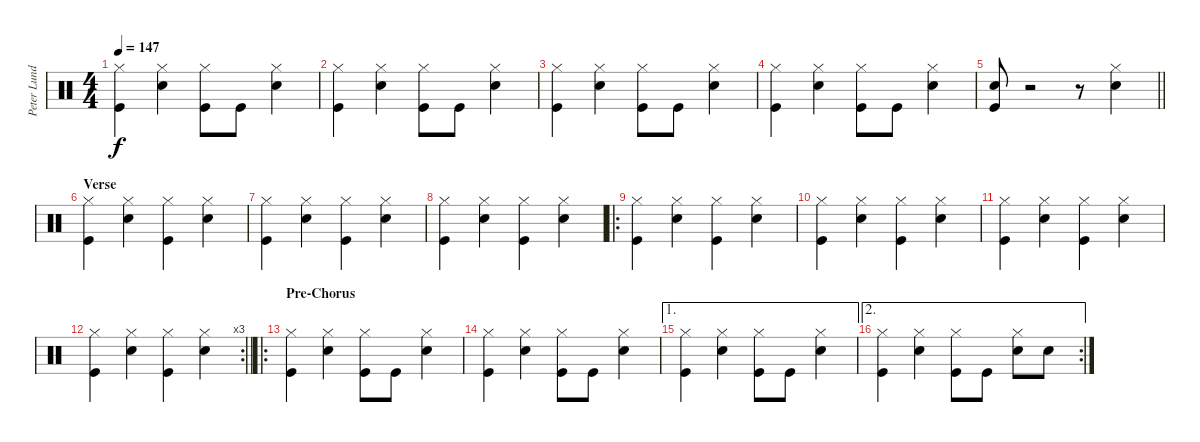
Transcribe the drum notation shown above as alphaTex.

\track ("Peter Lundholm Jensen" "Peter Lund") {instrument percussion}
\staff {score}
\articulation defaults
\ts (4 4)
\tempo 147
\clef neutral
\ks c
("Kick (hit)" "Hi-Hat (closed)").4{dy f} ("Snare (hit) 2" "Hi-Hat (closed)").4 ("Kick (hit)" "Hi-Hat (closed)").8 "Kick (hit)".8 ("Snare (hit) 2" "Hi-Hat (closed)").4 |
("Kick (hit)" "Hi-Hat (closed)").4 ("Snare (hit) 2" "Hi-Hat (closed)").4 ("Kick (hit)" "Hi-Hat (closed)").8 "Kick (hit)".8 ("Snare (hit) 2" "Hi-Hat (closed)").4 |
("Kick (hit)" "Hi-Hat (closed)").4 ("Snare (hit) 2" "Hi-Hat (closed)").4 ("Kick (hit)" "Hi-Hat (closed)").8 "Kick (hit)".8 ("Snare (hit) 2" "Hi-Hat (closed)").4 |
("Kick (hit)" "Hi-Hat (closed)").4 ("Snare (hit) 2" "Hi-Hat (closed)").4 ("Kick (hit)" "Hi-Hat (closed)").8 "Kick (hit)".8 ("Snare (hit) 2" "Hi-Hat (closed)").4 |
\barLineRight lightlight
("Kick (hit)" "Snare (hit) 2").8 r.2 r.8 ("Snare (hit) 2" "Hi-Hat (closed)").4 |
\section ("" "Verse")
("Kick (hit)" "Hi-Hat (closed)").4 ("Snare (hit) 2" "Hi-Hat (closed)").4 ("Kick (hit)" "Hi-Hat (closed)").4 ("Snare (hit) 2" "Hi-Hat (closed)").4 |
("Kick (hit)" "Hi-Hat (closed)").4 ("Snare (hit) 2" "Hi-Hat (closed)").4 ("Kick (hit)" "Hi-Hat (closed)").4 ("Snare (hit) 2" "Hi-Hat (closed)").4 |
("Kick (hit)" "Hi-Hat (closed)").4 ("Snare (hit) 2" "Hi-Hat (closed)").4 ("Kick (hit)" "Hi-Hat (closed)").4 ("Snare (hit) 2" "Hi-Hat (closed)").4 |
\ro
("Kick (hit)" "Hi-Hat (closed)").4 ("Snare (hit) 2" "Hi-Hat (closed)").4 ("Kick (hit)" "Hi-Hat (closed)").4 ("Snare (hit) 2" "Hi-Hat (closed)").4 |
("Kick (hit)" "Hi-Hat (closed)").4 ("Snare (hit) 2" "Hi-Hat (closed)").4 ("Kick (hit)" "Hi-Hat (closed)").4 ("Snare (hit) 2" "Hi-Hat (closed)").4 |
("Kick (hit)" "Hi-Hat (closed)").4 ("Snare (hit) 2" "Hi-Hat (closed)").4 ("Kick (hit)" "Hi-Hat (closed)").4 ("Snare (hit) 2" "Hi-Hat (closed)").4 |
\rc 3
\barLineRight lightlight
("Kick (hit)" "Hi-Hat (closed)").4 ("Snare (hit) 2" "Hi-Hat (closed)").4 ("Kick (hit)" "Hi-Hat (closed)").4 ("Snare (hit) 2" "Hi-Hat (closed)").4 |
\ro
\section ("" "Pre-Chorus")
("Kick (hit)" "Hi-Hat (closed)").4 ("Snare (hit) 2" "Hi-Hat (closed)").4 ("Kick (hit)" "Hi-Hat (closed)").8 "Kick (hit)".8 ("Snare (hit) 2" "Hi-Hat (closed)").4 |
("Kick (hit)" "Hi-Hat (closed)").4 ("Snare (hit) 2" "Hi-Hat (closed)").4 ("Kick (hit)" "Hi-Hat (closed)").8 "Kick (hit)".8 ("Snare (hit) 2" "Hi-Hat (closed)").4 |
\ae 1
("Kick (hit)" "Hi-Hat (closed)").4 ("Snare (hit) 2" "Hi-Hat (closed)").4 ("Kick (hit)" "Hi-Hat (closed)").8 "Kick (hit)".8 ("Snare (hit) 2" "Hi-Hat (closed)").4 |
\ae 2
\rc 2
("Kick (hit)" "Hi-Hat (closed)").4 ("Snare (hit) 2" "Hi-Hat (closed)").4 ("Kick (hit)" "Hi-Hat (closed)").8 "Kick (hit)".8 ("Snare (hit) 2" "Hi-Hat (closed)").8 "Snare (hit) 2".8
